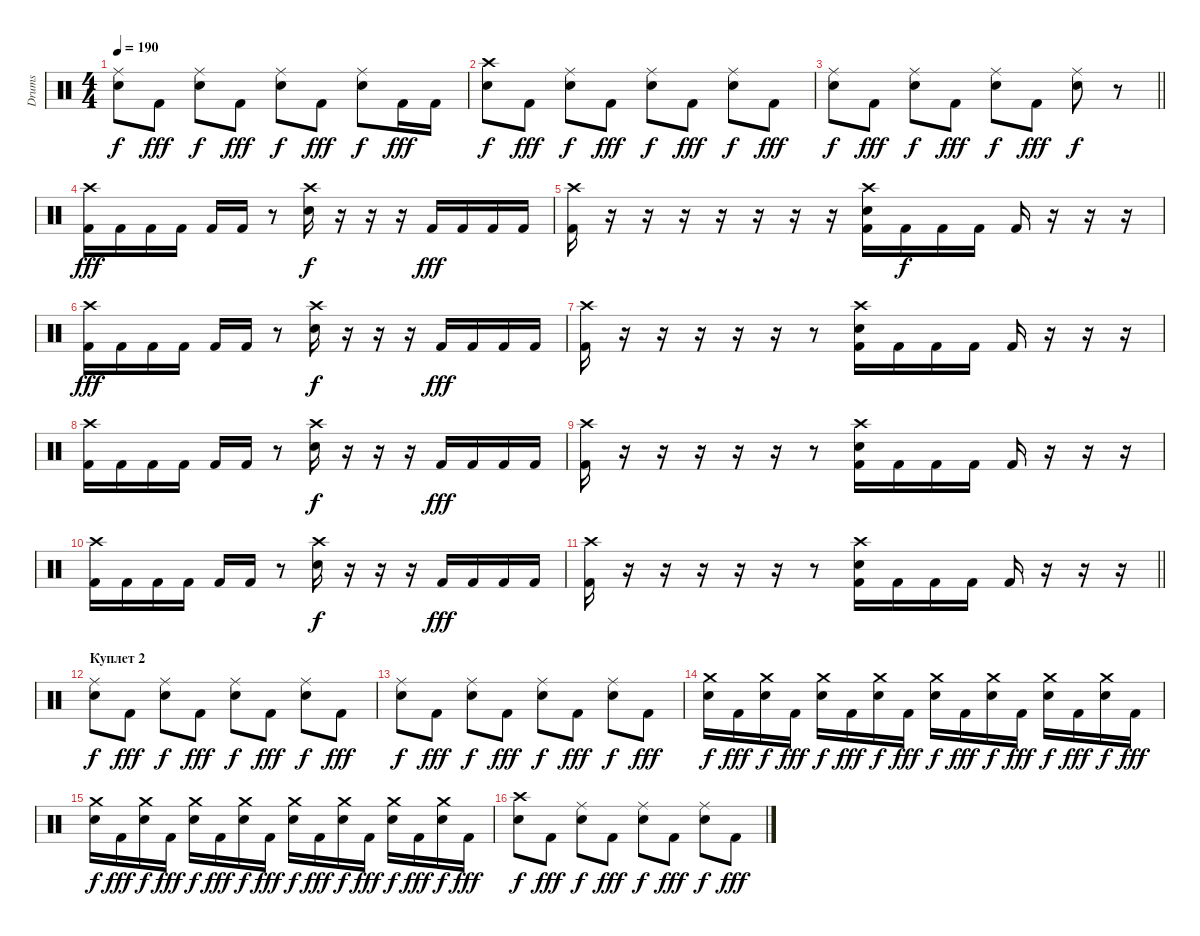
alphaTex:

\track ("Drums" "Drums") {instrument percussion}
\staff {score}
\articulation defaults
\ts (4 4)
\tempo 190
\clef neutral
\ks c
("Ride (middle)" "Electric Snare (hit)").8{dy f} "Kick (hit) 2".8{dy fff} ("Ride (middle)" "Electric Snare (hit)").8{dy f} "Kick (hit) 2".8{dy fff} ("Ride (middle)" "Electric Snare (hit)").8{dy f} "Kick (hit) 2".8{dy fff} ("Ride (middle)" "Electric Snare (hit)").8{dy f} "Kick (hit) 2".16{dy fff} "Kick (hit) 2".16 |
("Crash high (hit)" "Electric Snare (hit)").8{dy f} "Kick (hit) 2".8{dy fff} ("Ride (middle)" "Electric Snare (hit)").8{dy f} "Kick (hit) 2".8{dy fff} ("Ride (middle)" "Electric Snare (hit)").8{dy f} "Kick (hit) 2".8{dy fff} ("Ride (middle)" "Electric Snare (hit)").8{dy f} "Kick (hit) 2".8{dy fff} |
\barLineRight lightlight
("Ride (middle)" "Electric Snare (hit)").8{dy f} "Kick (hit) 2".8{dy fff} ("Ride (middle)" "Electric Snare (hit)").8{dy f} "Kick (hit) 2".8{dy fff} ("Ride (middle)" "Electric Snare (hit)").8{dy f} "Kick (hit) 2".8{dy fff} ("Ride (middle)" "Electric Snare (hit)").8{dy f} r.8 |
\section ("" "")
("Crash high (hit)" "Kick (hit) 2").16{dy fff} "Kick (hit) 2".16 "Kick (hit) 2".16 "Kick (hit) 2".16 "Kick (hit) 2".16 "Kick (hit) 2".16 r.8 ("Crash high (hit)" "Electric Snare (hit)").16{dy f} r.16 r.16 r.16 "Kick (hit) 2".16{dy fff} "Kick (hit) 2".16 "Kick (hit) 2".16 "Kick (hit) 2".16 |
("Crash high (hit)" "Kick (hit) 2").16 r.16 r.16 r.16 r.16 r.16 r.16 r.16 ("Crash high (hit)" "Electric Snare (hit)" "Kick (hit) 2").16 "Kick (hit) 2".16{dy f} "Kick (hit) 2".16 "Kick (hit) 2".16 "Kick (hit) 2".16 r.16 r.16 r.16 |
("Crash high (hit)" "Kick (hit) 2").16{dy fff} "Kick (hit) 2".16 "Kick (hit) 2".16 "Kick (hit) 2".16 "Kick (hit) 2".16 "Kick (hit) 2".16 r.8 ("Crash high (hit)" "Electric Snare (hit)").16{dy f} r.16 r.16 r.16 "Kick (hit) 2".16{dy fff} "Kick (hit) 2".16 "Kick (hit) 2".16 "Kick (hit) 2".16 |
("Crash high (hit)" "Kick (hit) 2").16 r.16 r.16 r.16 r.16 r.16 r.8 ("Crash high (hit)" "Electric Snare (hit)" "Kick (hit) 2").16 "Kick (hit) 2".16 "Kick (hit) 2".16 "Kick (hit) 2".16 "Kick (hit) 2".16 r.16 r.16 r.16 |
("Crash high (hit)" "Kick (hit) 2").16 "Kick (hit) 2".16 "Kick (hit) 2".16 "Kick (hit) 2".16 "Kick (hit) 2".16 "Kick (hit) 2".16 r.8 ("Crash high (hit)" "Electric Snare (hit)").16{dy f} r.16 r.16 r.16 "Kick (hit) 2".16{dy fff} "Kick (hit) 2".16 "Kick (hit) 2".16 "Kick (hit) 2".16 |
("Crash high (hit)" "Kick (hit) 2").16 r.16 r.16 r.16 r.16 r.16 r.8 ("Crash high (hit)" "Electric Snare (hit)" "Kick (hit) 2").16 "Kick (hit) 2".16 "Kick (hit) 2".16 "Kick (hit) 2".16 "Kick (hit) 2".16 r.16 r.16 r.16 |
("Crash high (hit)" "Kick (hit) 2").16 "Kick (hit) 2".16 "Kick (hit) 2".16 "Kick (hit) 2".16 "Kick (hit) 2".16 "Kick (hit) 2".16 r.8 ("Crash high (hit)" "Electric Snare (hit)").16{dy f} r.16 r.16 r.16 "Kick (hit) 2".16{dy fff} "Kick (hit) 2".16 "Kick (hit) 2".16 "Kick (hit) 2".16 |
\barLineRight lightlight
("Crash high (hit)" "Kick (hit) 2").16 r.16 r.16 r.16 r.16 r.16 r.8 ("Crash high (hit)" "Electric Snare (hit)" "Kick (hit) 2").16 "Kick (hit) 2".16 "Kick (hit) 2".16 "Kick (hit) 2".16 "Kick (hit) 2".16 r.16 r.16 r.16 |
\section ("" "Куплет 2")
("Ride (middle)" "Electric Snare (hit)").8{dy f} "Kick (hit) 2".8{dy fff} ("Ride (middle)" "Electric Snare (hit)").8{dy f} "Kick (hit) 2".8{dy fff} ("Ride (middle)" "Electric Snare (hit)").8{dy f} "Kick (hit) 2".8{dy fff} ("Ride (middle)" "Electric Snare (hit)").8{dy f} "Kick (hit) 2".8{dy fff} |
("Ride (middle)" "Electric Snare (hit)").8{dy f} "Kick (hit) 2".8{dy fff} ("Ride (middle)" "Electric Snare (hit)").8{dy f} "Kick (hit) 2".8{dy fff} ("Ride (middle)" "Electric Snare (hit)").8{dy f} "Kick (hit) 2".8{dy fff} ("Ride (middle)" "Electric Snare (hit)").8{dy f} "Kick (hit) 2".8{dy fff} |
("Crash medium (hit)" "Electric Snare (hit)").16{dy f} "Kick (hit) 2".16{dy fff} ("Crash medium (hit)" "Electric Snare (hit)").16{dy f} "Kick (hit) 2".16{dy fff} ("Crash medium (hit)" "Electric Snare (hit)").16{dy f} "Kick (hit) 2".16{dy fff} ("Crash medium (hit)" "Electric Snare (hit)").16{dy f} "Kick (hit) 2".16{dy fff} ("Crash medium (hit)" "Electric Snare (hit)").16{dy f} "Kick (hit) 2".16{dy fff} ("Crash medium (hit)" "Electric Snare (hit)").16{dy f} "Kick (hit) 2".16{dy fff} ("Crash medium (hit)" "Electric Snare (hit)").16{dy f} "Kick (hit) 2".16{dy fff} ("Crash medium (hit)" "Electric Snare (hit)").16{dy f} "Kick (hit) 2".16{dy fff} |
("Crash medium (hit)" "Electric Snare (hit)").16{dy f} "Kick (hit) 2".16{dy fff} ("Crash medium (hit)" "Electric Snare (hit)").16{dy f} "Kick (hit) 2".16{dy fff} ("Crash medium (hit)" "Electric Snare (hit)").16{dy f} "Kick (hit) 2".16{dy fff} ("Crash medium (hit)" "Electric Snare (hit)").16{dy f} "Kick (hit) 2".16{dy fff} ("Crash medium (hit)" "Electric Snare (hit)").16{dy f} "Kick (hit) 2".16{dy fff} ("Crash medium (hit)" "Electric Snare (hit)").16{dy f} "Kick (hit) 2".16{dy fff} ("Crash medium (hit)" "Electric Snare (hit)").16{dy f} "Kick (hit) 2".16{dy fff} ("Crash medium (hit)" "Electric Snare (hit)").16{dy f} "Kick (hit) 2".16{dy fff} |
("Crash high (hit)" "Electric Snare (hit)").8{dy f} "Kick (hit) 2".8{dy fff} ("Ride (middle)" "Electric Snare (hit)").8{dy f} "Kick (hit) 2".8{dy fff} ("Ride (middle)" "Electric Snare (hit)").8{dy f} "Kick (hit) 2".8{dy fff} ("Ride (middle)" "Electric Snare (hit)").8{dy f} "Kick (hit) 2".8{dy fff}
